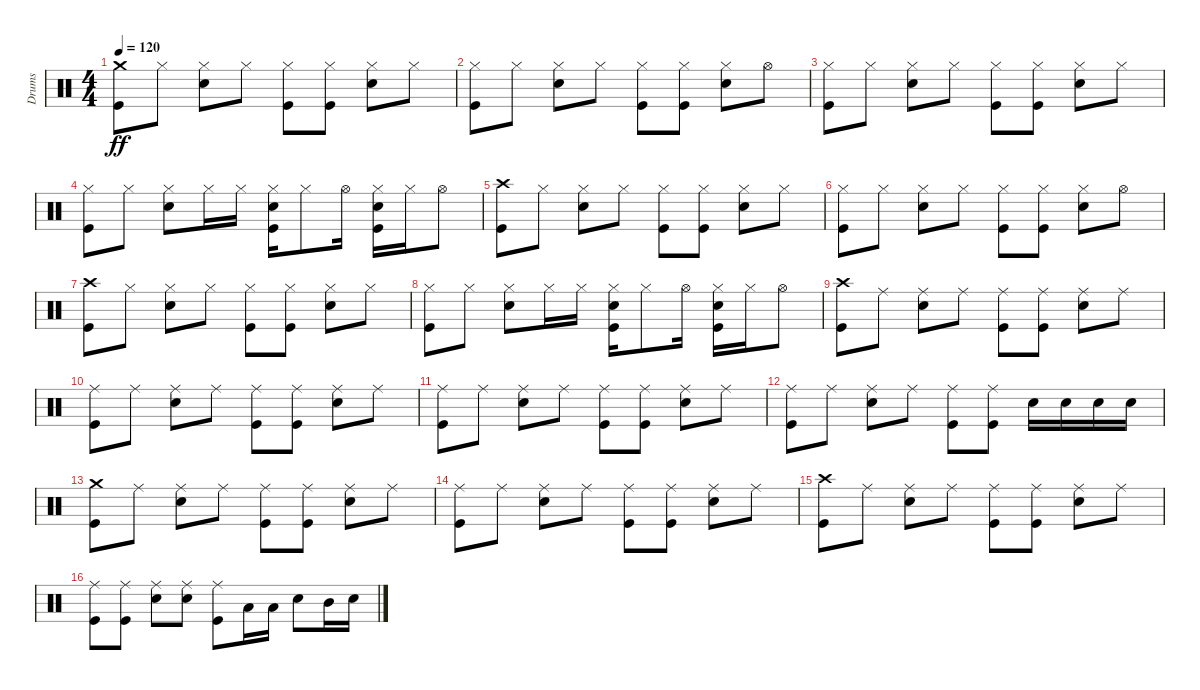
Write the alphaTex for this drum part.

\track ("Drums" "Drums") {instrument percussion}
\staff {score}
\articulation defaults
\ts (4 4)
\tempo 120
\clef neutral
\ks c
("Crash medium (hit)" "Kick (hit)").8{dy ff} "Hi-Hat (closed)".8 ("Hi-Hat (closed)" "Snare (hit) 2").8 "Hi-Hat (closed)".8 ("Hi-Hat (closed)" "Kick (hit)").8 ("Hi-Hat (closed)" "Kick (hit)").8 ("Hi-Hat (closed)" "Snare (hit) 2").8 "Hi-Hat (closed)".8 |
("Hi-Hat (closed)" "Kick (hit)").8 "Hi-Hat (closed)".8 ("Hi-Hat (closed)" "Snare (hit) 2").8 "Hi-Hat (closed)".8 ("Hi-Hat (closed)" "Kick (hit)").8 ("Hi-Hat (closed)" "Kick (hit)").8 ("Hi-Hat (closed)" "Snare (hit) 2").8 "Hi-Hat (open)".8 |
("Hi-Hat (closed)" "Kick (hit)").8 "Hi-Hat (closed)".8 ("Hi-Hat (closed)" "Snare (hit) 2").8 "Hi-Hat (closed)".8 ("Hi-Hat (closed)" "Kick (hit)").8 ("Hi-Hat (closed)" "Kick (hit)").8 ("Hi-Hat (closed)" "Snare (hit) 2").8 "Hi-Hat (closed)".8 |
("Hi-Hat (closed)" "Kick (hit)").8 "Hi-Hat (closed)".8 ("Hi-Hat (closed)" "Snare (hit) 2").8 "Hi-Hat (closed)".16 "Hi-Hat (closed)".16 ("Hi-Hat (closed)" "Snare (hit) 2" "Kick (hit)").16 "Hi-Hat (closed)".8 "Hi-Hat (open)".16 ("Hi-Hat (closed)" "Snare (hit) 2" "Kick (hit)").16 "Hi-Hat (closed)".16 "Hi-Hat (open)".8 |
("Crash high (hit)" "Kick (hit)").8 "Hi-Hat (closed)".8 ("Hi-Hat (closed)" "Snare (hit) 2").8 "Hi-Hat (closed)".8 ("Hi-Hat (closed)" "Kick (hit)").8 ("Hi-Hat (closed)" "Kick (hit)").8 ("Hi-Hat (closed)" "Snare (hit) 2").8 "Hi-Hat (closed)".8 |
("Hi-Hat (closed)" "Kick (hit)").8 "Hi-Hat (closed)".8 ("Hi-Hat (closed)" "Snare (hit) 2").8 "Hi-Hat (closed)".8 ("Hi-Hat (closed)" "Kick (hit)").8 ("Hi-Hat (closed)" "Kick (hit)").8 ("Hi-Hat (closed)" "Snare (hit) 2").8 "Hi-Hat (open)".8 |
("Crash high (hit)" "Kick (hit)").8 "Hi-Hat (closed)".8 ("Hi-Hat (closed)" "Snare (hit) 2").8 "Hi-Hat (closed)".8 ("Hi-Hat (closed)" "Kick (hit)").8 ("Hi-Hat (closed)" "Kick (hit)").8 ("Hi-Hat (closed)" "Snare (hit) 2").8 "Hi-Hat (closed)".8 |
("Hi-Hat (closed)" "Kick (hit)").8 "Hi-Hat (closed)".8 ("Hi-Hat (closed)" "Snare (hit) 2").8 "Hi-Hat (closed)".16 "Hi-Hat (closed)".16 ("Hi-Hat (closed)" "Snare (hit) 2" "Kick (hit)").16 "Hi-Hat (closed)".8 "Hi-Hat (open)".16 ("Hi-Hat (closed)" "Snare (hit) 2" "Kick (hit)").16 "Hi-Hat (closed)".16 "Hi-Hat (open)".8 |
("Crash high (hit)" "Kick (hit)").8 "Ride (middle)".8 ("Ride (middle)" "Snare (hit) 2").8 "Ride (middle)".8 ("Ride (middle)" "Kick (hit)").8 ("Ride (middle)" "Kick (hit)").8 ("Ride (middle)" "Snare (hit) 2").8 "Ride (middle)".8 |
("Ride (middle)" "Kick (hit)").8 "Ride (middle)".8 ("Ride (middle)" "Snare (hit) 2").8 "Ride (middle)".8 ("Ride (middle)" "Kick (hit)").8 ("Ride (middle)" "Kick (hit)").8 ("Ride (middle)" "Snare (hit) 2").8 "Ride (middle)".8 |
("Ride (middle)" "Kick (hit)").8 "Ride (middle)".8 ("Ride (middle)" "Snare (hit) 2").8 "Ride (middle)".8 ("Ride (middle)" "Kick (hit)").8 ("Ride (middle)" "Kick (hit)").8 ("Ride (middle)" "Snare (hit) 2").8 "Ride (middle)".8 |
("Ride (middle)" "Kick (hit)").8 "Ride (middle)".8 ("Ride (middle)" "Snare (hit) 2").8 "Ride (middle)".8 ("Ride (middle)" "Kick (hit)").8 ("Ride (middle)" "Kick (hit)").8 "Snare (hit) 2".16 "Snare (hit) 2".16 "Snare (hit) 2".16 "Snare (hit) 2".16 |
("Crash medium (hit)" "Kick (hit)").8 "Ride (middle)".8 ("Ride (middle)" "Snare (hit) 2").8 "Ride (middle)".8 ("Ride (middle)" "Kick (hit)").8 ("Ride (middle)" "Kick (hit)").8 ("Ride (middle)" "Snare (hit) 2").8 "Ride (middle)".8 |
("Ride (middle)" "Kick (hit)").8 "Ride (middle)".8 ("Ride (middle)" "Snare (hit) 2").8 "Ride (middle)".8 ("Ride (middle)" "Kick (hit)").8 ("Ride (middle)" "Kick (hit)").8 ("Ride (middle)" "Snare (hit) 2").8 "Ride (middle)".8 |
("Crash high (hit)" "Kick (hit)").8 "Ride (middle)".8 ("Ride (middle)" "Snare (hit) 2").8 "Ride (middle)".8 ("Ride (middle)" "Kick (hit)").8 ("Ride (middle)" "Kick (hit)").8 ("Ride (middle)" "Snare (hit) 2").8 "Ride (middle)".8 |
("Ride (middle)" "Kick (hit)").8 ("Ride (middle)" "Kick (hit)").8 ("Ride (middle)" "Snare (hit) 2").8 ("Ride (middle)" "Snare (hit) 2").8 ("Ride (middle)" "Kick (hit)").8 "Low Tom (hit)".16 "Low Tom (hit)".16 "Snare (hit) 2".8 "Mid Tom (hit)".16 "Snare (hit) 2".16
